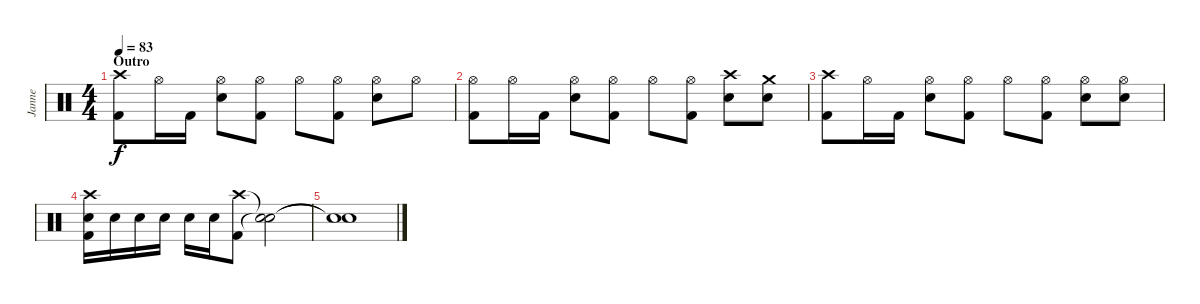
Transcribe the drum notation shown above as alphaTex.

\track ("Janne" "Janne") {instrument percussion}
\staff {score}
\articulation defaults
\ts (4 4)
\section ("" "Outro")
\tempo 83
\clef neutral
\ks c
("Crash high (hit)" "Kick (hit) 2").8{dy f} "Hi-Hat (open)".16 "Kick (hit) 2".16 ("Hi-Hat (open)" "Electric Snare (hit)").8 ("Hi-Hat (open)" "Kick (hit) 2").8 "Hi-Hat (open)".8 ("Hi-Hat (open)" "Kick (hit) 2").8 ("Hi-Hat (open)" "Electric Snare (hit)").8 "Hi-Hat (open)".8 |
("Hi-Hat (open)" "Kick (hit) 2").8 "Hi-Hat (open)".16 "Kick (hit) 2".16 ("Hi-Hat (open)" "Electric Snare (hit)").8 ("Hi-Hat (open)" "Kick (hit) 2").8 "Hi-Hat (open)".8 ("Hi-Hat (open)" "Kick (hit) 2").8 ("Crash high (hit)" "Electric Snare (hit)").8 ("Crash medium (hit)" "Electric Snare (hit)").8 |
("Crash high (hit)" "Kick (hit) 2").8 "Hi-Hat (open)".16 "Kick (hit) 2".16 ("Hi-Hat (open)" "Electric Snare (hit)").8 ("Hi-Hat (open)" "Kick (hit) 2").8 "Hi-Hat (open)".8 ("Hi-Hat (open)" "Kick (hit) 2").8 ("Hi-Hat (open)" "Electric Snare (hit)").8 ("Hi-Hat (open)" "Electric Snare (hit)").8 |
("Crash high (hit)" "Electric Snare (hit)" "Kick (hit) 2").16 "Electric Snare (hit)".16 "Electric Snare (hit)".16 "Electric Snare (hit)".16 "Electric Snare (hit)".16 "Electric Snare (hit)".16 ("Crash high (hit)" "Kick (hit) 2").8 ("Snare (hit)"{t} "Snare (hit)"{t}).2 |
("Snare (hit)"{t} "Snare (hit)"{t}).1
